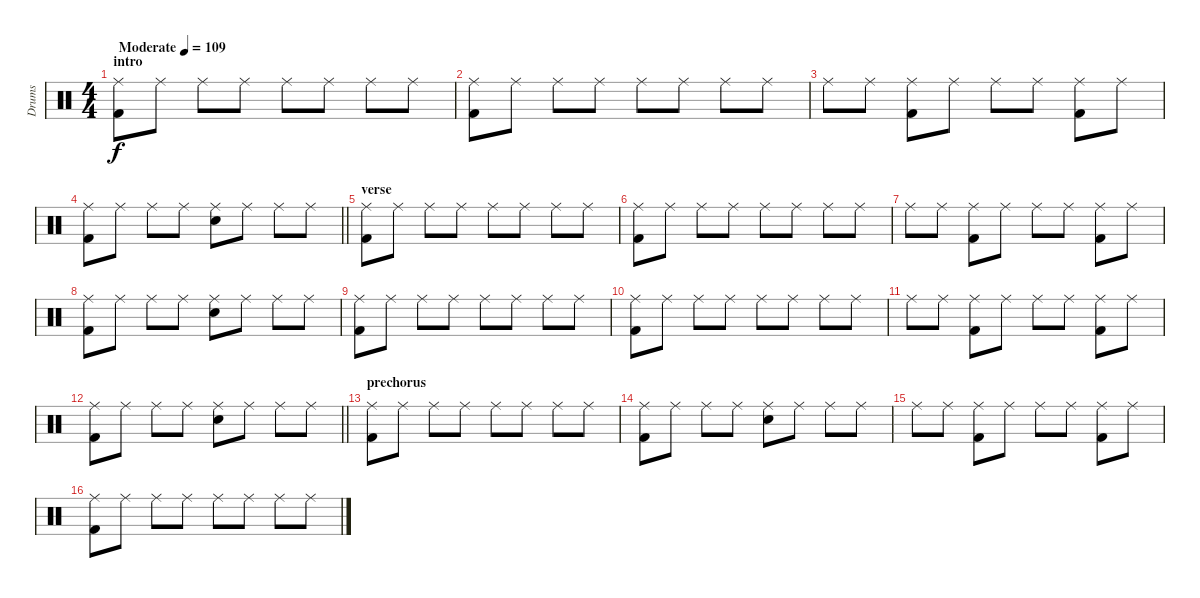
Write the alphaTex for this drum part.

\track ("Drums" "Drums") {instrument percussion}
\staff {score}
\articulation defaults
\ts (4 4)
\section ("" "intro")
\tempo (109 "Moderate")
\clef neutral
\ks c
("Ride (middle)" "Kick (hit) 2").8{dy f} "Ride (middle)".8 "Ride (middle)".8 "Ride (middle)".8 "Ride (middle)".8 "Ride (middle)".8 "Ride (middle)".8 "Ride (middle)".8 |
("Ride (middle)" "Kick (hit) 2").8 "Ride (middle)".8 "Ride (middle)".8 "Ride (middle)".8 "Ride (middle)".8 "Ride (middle)".8 "Ride (middle)".8 "Ride (middle)".8 |
"Ride (middle)".8 "Ride (middle)".8 ("Ride (middle)" "Kick (hit) 2").8 "Ride (middle)".8 "Ride (middle)".8 "Ride (middle)".8 ("Ride (middle)" "Kick (hit) 2").8 "Ride (middle)".8 |
\barLineRight lightlight
("Ride (middle)" "Kick (hit) 2").8 "Ride (middle)".8 "Ride (middle)".8 "Ride (middle)".8 ("Ride (middle)" "Electric Snare (hit)").8 "Ride (middle)".8 "Ride (middle)".8 "Ride (middle)".8 |
\section ("" "verse")
("Ride (middle)" "Kick (hit) 2").8 "Ride (middle)".8 "Ride (middle)".8 "Ride (middle)".8 "Ride (middle)".8 "Ride (middle)".8 "Ride (middle)".8 "Ride (middle)".8 |
("Ride (middle)" "Kick (hit) 2").8 "Ride (middle)".8 "Ride (middle)".8 "Ride (middle)".8 "Ride (middle)".8 "Ride (middle)".8 "Ride (middle)".8 "Ride (middle)".8 |
"Ride (middle)".8 "Ride (middle)".8 ("Ride (middle)" "Kick (hit) 2").8 "Ride (middle)".8 "Ride (middle)".8 "Ride (middle)".8 ("Ride (middle)" "Kick (hit) 2").8 "Ride (middle)".8 |
("Ride (middle)" "Kick (hit) 2").8 "Ride (middle)".8 "Ride (middle)".8 "Ride (middle)".8 ("Ride (middle)" "Electric Snare (hit)").8 "Ride (middle)".8 "Ride (middle)".8 "Ride (middle)".8 |
("Ride (middle)" "Kick (hit) 2").8 "Ride (middle)".8 "Ride (middle)".8 "Ride (middle)".8 "Ride (middle)".8 "Ride (middle)".8 "Ride (middle)".8 "Ride (middle)".8 |
("Ride (middle)" "Kick (hit) 2").8 "Ride (middle)".8 "Ride (middle)".8 "Ride (middle)".8 "Ride (middle)".8 "Ride (middle)".8 "Ride (middle)".8 "Ride (middle)".8 |
"Ride (middle)".8 "Ride (middle)".8 ("Ride (middle)" "Kick (hit) 2").8 "Ride (middle)".8 "Ride (middle)".8 "Ride (middle)".8 ("Ride (middle)" "Kick (hit) 2").8 "Ride (middle)".8 |
\barLineRight lightlight
("Ride (middle)" "Kick (hit) 2").8 "Ride (middle)".8 "Ride (middle)".8 "Ride (middle)".8 ("Ride (middle)" "Electric Snare (hit)").8 "Ride (middle)".8 "Ride (middle)".8 "Ride (middle)".8 |
\section ("" "prechorus")
("Ride (middle)" "Kick (hit) 2").8 "Ride (middle)".8 "Ride (middle)".8 "Ride (middle)".8 "Ride (middle)".8 "Ride (middle)".8 "Ride (middle)".8 "Ride (middle)".8 |
("Ride (middle)" "Kick (hit) 2").8 "Ride (middle)".8 "Ride (middle)".8 "Ride (middle)".8 ("Ride (middle)" "Electric Snare (hit)").8 "Ride (middle)".8 "Ride (middle)".8 "Ride (middle)".8 |
"Ride (middle)".8 "Ride (middle)".8 ("Ride (middle)" "Kick (hit) 2").8 "Ride (middle)".8 "Ride (middle)".8 "Ride (middle)".8 ("Ride (middle)" "Kick (hit) 2").8 "Ride (middle)".8 |
("Ride (middle)" "Kick (hit) 2").8 "Ride (middle)".8 "Ride (middle)".8 "Ride (middle)".8 "Ride (middle)".8 "Ride (middle)".8 "Ride (middle)".8 "Ride (middle)".8
